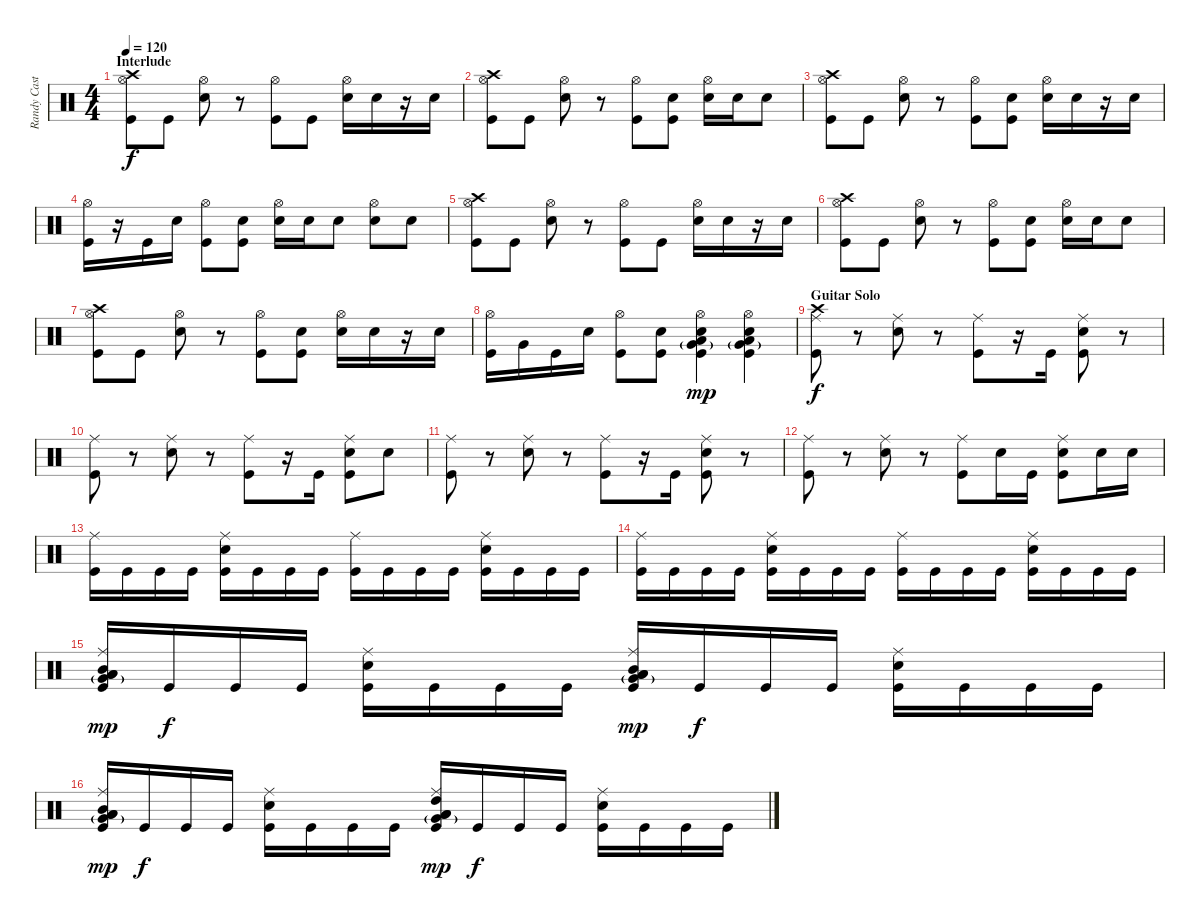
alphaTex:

\track ("Randy Castiello (Dums)" "Randy Cast") {instrument percussion}
\staff {score}
\articulation defaults
\ts (4 4)
\section ("" "Interlude")
\tempo 120
\clef neutral
\ks c
("Hi-Hat (open)" "Crash high (hit)" "Kick (hit)").8{dy f} "Kick (hit)".8 ("Hi-Hat (open)" "Snare (hit) 2").8 r.8 ("Hi-Hat (open)" "Kick (hit)").8 "Kick (hit)".8 ("Hi-Hat (open)" "Snare (hit) 2").16 "Snare (hit) 2".16 r.16 "Snare (hit) 2".16 |
("Hi-Hat (open)" "Crash high (hit)" "Kick (hit)").8 "Kick (hit)".8 ("Hi-Hat (open)" "Snare (hit) 2").8 r.8 ("Hi-Hat (open)" "Kick (hit)").8 ("Snare (hit) 2" "Kick (hit)").8 ("Hi-Hat (open)" "Snare (hit) 2").16 "Snare (hit) 2".16 "Snare (hit) 2".8 |
("Hi-Hat (open)" "Crash high (hit)" "Kick (hit)").8 "Kick (hit)".8 ("Hi-Hat (open)" "Snare (hit) 2").8 r.8 ("Hi-Hat (open)" "Kick (hit)").8 ("Snare (hit) 2" "Kick (hit)").8 ("Hi-Hat (open)" "Snare (hit) 2").16 "Snare (hit) 2".16 r.16 "Snare (hit) 2".16 |
("Hi-Hat (open)" "Kick (hit)").16 r.16 "Kick (hit)".16 "Snare (hit) 2".16 ("Hi-Hat (open)" "Kick (hit)").8 ("Snare (hit) 2" "Kick (hit)").8 ("Hi-Hat (open)" "Snare (hit) 2").16 "Snare (hit) 2".16 "Snare (hit) 2".8 ("Hi-Hat (open)" "Snare (hit) 2").8 "Snare (hit) 2".8 |
("Hi-Hat (open)" "Crash high (hit)" "Kick (hit)").8 "Kick (hit)".8 ("Hi-Hat (open)" "Snare (hit) 2").8 r.8 ("Hi-Hat (open)" "Kick (hit)").8 "Kick (hit)".8 ("Hi-Hat (open)" "Snare (hit) 2").16 "Snare (hit) 2".16 r.16 "Snare (hit) 2".16 |
("Hi-Hat (open)" "Crash high (hit)" "Kick (hit)").8 "Kick (hit)".8 ("Hi-Hat (open)" "Snare (hit) 2").8 r.8 ("Hi-Hat (open)" "Kick (hit)").8 ("Snare (hit) 2" "Kick (hit)").8 ("Hi-Hat (open)" "Snare (hit) 2").16 "Snare (hit) 2".16 "Snare (hit) 2".8 |
("Hi-Hat (open)" "Crash high (hit)" "Kick (hit)").8 "Kick (hit)".8 ("Hi-Hat (open)" "Snare (hit) 2").8 r.8 ("Hi-Hat (open)" "Kick (hit)").8 ("Snare (hit) 2" "Kick (hit)").8 ("Hi-Hat (open)" "Snare (hit) 2").16 "Snare (hit) 2".16 r.16 "Snare (hit) 2".16 |
("Hi-Hat (open)" "Kick (hit)").16 "Very Low Tom (hit)".16 "Kick (hit)".16 "Snare (hit) 2".16 ("Hi-Hat (open)" "Kick (hit)").8 ("Snare (hit) 2" "Kick (hit)").8 ("Hi-Hat (open)" "Low Floor Tom (hit)" "Very Low Tom (hit)"{g} "Snare (hit) 2" "Kick (hit)").4{dy mp} ("Hi-Hat (open)" "Low Floor Tom (hit)" "Very Low Tom (hit)"{g} "Snare (hit) 2" "Kick (hit)").4 |
\section ("" "Guitar Solo")
("Ride (middle)" "Crash high (hit)" "Kick (hit)").8{dy f} r.8 ("Ride (middle)" "Snare (hit) 2").8 r.8 ("Ride (middle)" "Kick (hit)").8 r.16 "Kick (hit)".16 ("Ride (middle)" "Snare (hit) 2" "Kick (hit)").8 r.8 |
("Ride (middle)" "Kick (hit)").8 r.8 ("Ride (middle)" "Snare (hit) 2").8 r.8 ("Ride (middle)" "Kick (hit)").8 r.16 "Kick (hit)".16 ("Ride (middle)" "Snare (hit) 2" "Kick (hit)").8 "Snare (hit) 2".8 |
("Ride (middle)" "Kick (hit)").8 r.8 ("Ride (middle)" "Snare (hit) 2").8 r.8 ("Ride (middle)" "Kick (hit)").8 r.16 "Kick (hit)".16 ("Ride (middle)" "Snare (hit) 2" "Kick (hit)").8 r.8 |
("Ride (middle)" "Kick (hit)").8 r.8 ("Ride (middle)" "Snare (hit) 2").8 r.8 ("Ride (middle)" "Kick (hit)").8 "Snare (hit) 2".16 "Kick (hit)".16 ("Ride (middle)" "Snare (hit) 2" "Kick (hit)").8 "Snare (hit) 2".16 "Snare (hit) 2".16 |
("Ride (middle)" "Kick (hit)").16 "Kick (hit)".16 "Kick (hit)".16 "Kick (hit)".16 ("Ride (middle)" "Snare (hit) 2" "Kick (hit)").16 "Kick (hit)".16 "Kick (hit)".16 "Kick (hit)".16 ("Ride (middle)" "Kick (hit)").16 "Kick (hit)".16 "Kick (hit)".16 "Kick (hit)".16 ("Ride (middle)" "Snare (hit) 2" "Kick (hit)").16 "Kick (hit)".16 "Kick (hit)".16 "Kick (hit)".16 |
("Ride (middle)" "Kick (hit)").16 "Kick (hit)".16 "Kick (hit)".16 "Kick (hit)".16 ("Ride (middle)" "Snare (hit) 2" "Kick (hit)").16 "Kick (hit)".16 "Kick (hit)".16 "Kick (hit)".16 ("Ride (middle)" "Kick (hit)").16 "Kick (hit)".16 "Kick (hit)".16 "Kick (hit)".16 ("Ride (middle)" "Snare (hit) 2" "Kick (hit)").16 "Kick (hit)".16 "Kick (hit)".16 "Kick (hit)".16 |
("Ride (middle)" "Low Tom (hit)" "Low Floor Tom (hit)" "Very Low Tom (hit)"{g} "Mid Tom (hit)" "Kick (hit)").16{dy mp} "Kick (hit)".16{dy f} "Kick (hit)".16 "Kick (hit)".16 ("Ride (middle)" "Snare (hit) 2" "Kick (hit)").16 "Kick (hit)".16 "Kick (hit)".16 "Kick (hit)".16 ("Ride (middle)" "Low Tom (hit)" "Low Floor Tom (hit)" "Mid Tom (hit)" "Very Low Tom (hit)"{g} "Kick (hit)").16{dy mp} "Kick (hit)".16{dy f} "Kick (hit)".16 "Kick (hit)".16 ("Ride (middle)" "Snare (hit) 2" "Kick (hit)").16 "Kick (hit)".16 "Kick (hit)".16 "Kick (hit)".16 |
("Ride (middle)" "Low Tom (hit)" "Low Floor Tom (hit)" "Very Low Tom (hit)"{g} "Mid Tom (hit)" "Kick (hit)").16{dy mp} "Kick (hit)".16{dy f} "Kick (hit)".16 "Kick (hit)".16 ("Ride (middle)" "Snare (hit) 2" "Kick (hit)").16 "Kick (hit)".16 "Kick (hit)".16 "Kick (hit)".16 ("Ride (middle)" "Low Tom (hit)" "Low Floor Tom (hit)" "High Tom (hit)" "Very Low Tom (hit)"{g} "Kick (hit)").16{dy mp} "Kick (hit)".16{dy f} "Kick (hit)".16 "Kick (hit)".16 ("Ride (middle)" "Snare (hit) 2" "Kick (hit)").16 "Kick (hit)".16 "Kick (hit)".16 "Kick (hit)".16
